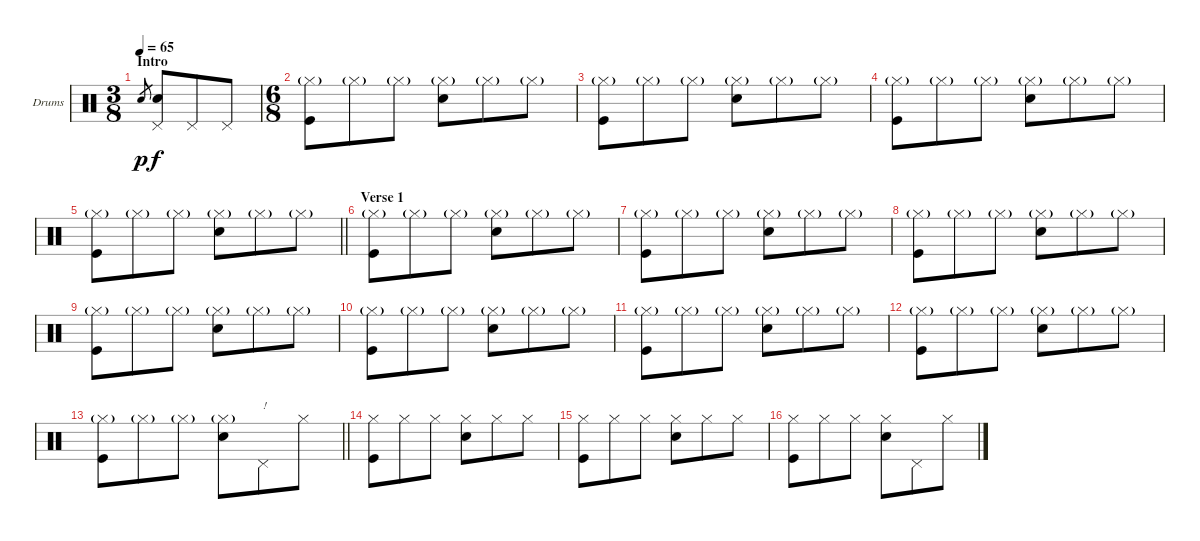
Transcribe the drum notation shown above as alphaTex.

\bracketExtendMode groupsimilarinstruments
\firstSystemTrackNameOrientation horizontal
\otherSystemsTrackNameOrientation horizontal
\track ("Drumkit" "Drums") {instrument percussion}
\staff {score}
\articulation defaults
\ts (3 8)
\section ("" "Intro")
\tempo 65
\clef neutral
\ks c "Snare (hit) 2".8{gr dy p}
("Pedal Hi-Hat (hit)" "Snare (hit) 2").8{dy f} "Pedal Hi-Hat (hit)".8 "Pedal Hi-Hat (hit)".8 |
\ts (6 8)
("Hi-Hat (closed)"{g} "Kick (hit)").8 "Hi-Hat (closed)"{g}.8 "Hi-Hat (closed)"{g}.8 ("Hi-Hat (closed)"{g} "Snare (hit) 2").8 "Hi-Hat (closed)"{g}.8 "Hi-Hat (closed)"{g}.8 |
("Hi-Hat (closed)"{g} "Kick (hit)").8 "Hi-Hat (closed)"{g}.8 "Hi-Hat (closed)"{g}.8 ("Hi-Hat (closed)"{g} "Snare (hit) 2").8 "Hi-Hat (closed)"{g}.8 "Hi-Hat (closed)"{g}.8 |
("Hi-Hat (closed)"{g} "Kick (hit)").8 "Hi-Hat (closed)"{g}.8 "Hi-Hat (closed)"{g}.8 ("Hi-Hat (closed)"{g} "Snare (hit) 2").8 "Hi-Hat (closed)"{g}.8 "Hi-Hat (closed)"{g}.8 |
\barLineRight lightlight
("Hi-Hat (closed)"{g} "Kick (hit)").8 "Hi-Hat (closed)"{g}.8 "Hi-Hat (closed)"{g}.8 ("Hi-Hat (closed)"{g} "Snare (hit) 2").8 "Hi-Hat (closed)"{g}.8 "Hi-Hat (closed)"{g}.8 |
\section ("" "Verse 1")
("Hi-Hat (closed)"{g} "Kick (hit)").8 "Hi-Hat (closed)"{g}.8 "Hi-Hat (closed)"{g}.8 ("Hi-Hat (closed)"{g} "Snare (hit) 2").8 "Hi-Hat (closed)"{g}.8 "Hi-Hat (closed)"{g}.8 |
("Hi-Hat (closed)"{g} "Kick (hit)").8 "Hi-Hat (closed)"{g}.8 "Hi-Hat (closed)"{g}.8 ("Hi-Hat (closed)"{g} "Snare (hit) 2").8 "Hi-Hat (closed)"{g}.8 "Hi-Hat (closed)"{g}.8 |
("Hi-Hat (closed)"{g} "Kick (hit)").8 "Hi-Hat (closed)"{g}.8 "Hi-Hat (closed)"{g}.8 ("Hi-Hat (closed)"{g} "Snare (hit) 2").8 "Hi-Hat (closed)"{g}.8 "Hi-Hat (closed)"{g}.8 |
("Hi-Hat (closed)"{g} "Kick (hit)").8 "Hi-Hat (closed)"{g}.8 "Hi-Hat (closed)"{g}.8 ("Hi-Hat (closed)"{g} "Snare (hit) 2").8 "Hi-Hat (closed)"{g}.8 "Hi-Hat (closed)"{g}.8 |
("Hi-Hat (closed)"{g} "Kick (hit)").8 "Hi-Hat (closed)"{g}.8 "Hi-Hat (closed)"{g}.8 ("Hi-Hat (closed)"{g} "Snare (hit) 2").8 "Hi-Hat (closed)"{g}.8 "Hi-Hat (closed)"{g}.8 |
("Hi-Hat (closed)"{g} "Kick (hit)").8 "Hi-Hat (closed)"{g}.8 "Hi-Hat (closed)"{g}.8 ("Hi-Hat (closed)"{g} "Snare (hit) 2").8 "Hi-Hat (closed)"{g}.8 "Hi-Hat (closed)"{g}.8 |
("Hi-Hat (closed)"{g} "Kick (hit)").8 "Hi-Hat (closed)"{g}.8 "Hi-Hat (closed)"{g}.8 ("Hi-Hat (closed)"{g} "Snare (hit) 2").8 "Hi-Hat (closed)"{g}.8 "Hi-Hat (closed)"{g}.8 |
\barLineRight lightlight
("Hi-Hat (closed)"{g} "Kick (hit)").8 "Hi-Hat (closed)"{g}.8 "Hi-Hat (closed)"{g}.8 ("Hi-Hat (closed)"{g} "Snare (hit) 2").8 "Pedal Hi-Hat (hit)".8{txt "!"} "Hi-Hat (closed)".8 |
\section ("" "")
("Hi-Hat (closed)" "Kick (hit)").8 "Hi-Hat (closed)".8 "Hi-Hat (closed)".8 ("Hi-Hat (closed)" "Snare (hit) 2").8 "Hi-Hat (closed)".8 "Hi-Hat (closed)".8 |
("Hi-Hat (closed)" "Kick (hit)").8 "Hi-Hat (closed)".8 "Hi-Hat (closed)".8 ("Hi-Hat (closed)" "Snare (hit) 2").8 "Hi-Hat (closed)".8 "Hi-Hat (closed)".8 |
("Hi-Hat (closed)" "Kick (hit)").8 "Hi-Hat (closed)".8 "Hi-Hat (closed)".8 ("Hi-Hat (closed)" "Snare (hit) 2").8 "Pedal Hi-Hat (hit)".8 "Hi-Hat (closed)".8
